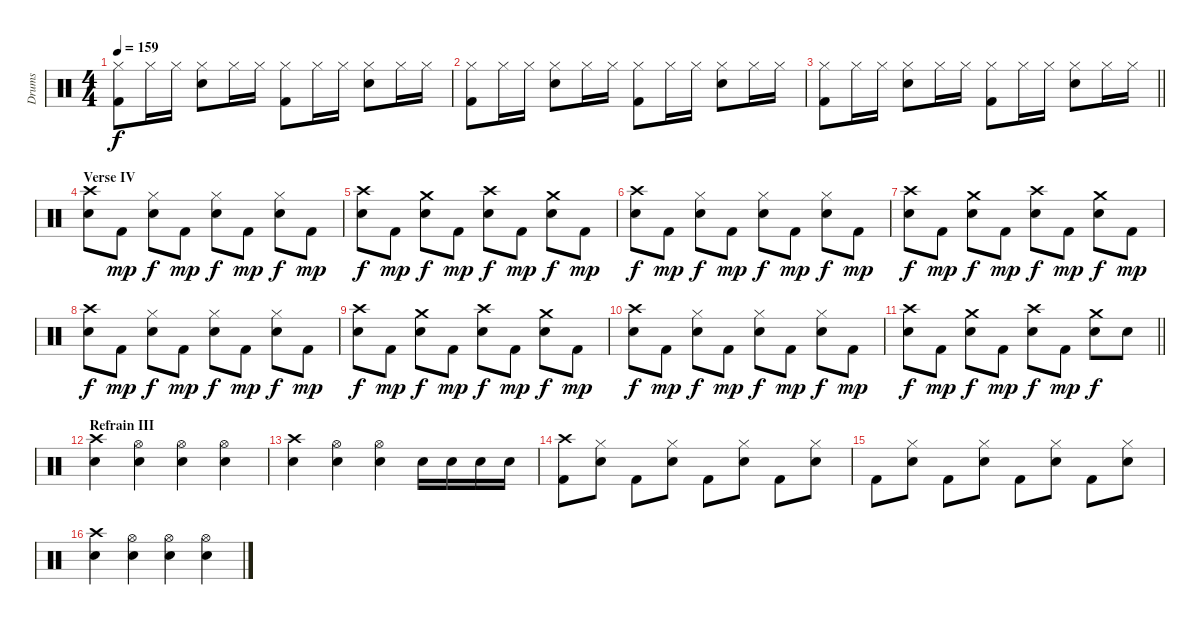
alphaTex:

\track ("Drums" "Drums") {instrument percussion}
\staff {score}
\articulation defaults
\ts (4 4)
\tempo 159
\clef neutral
\ks c
("Hi-Hat (closed)" "Kick (hit) 2").8{dy f} "Hi-Hat (closed)".16 "Hi-Hat (closed)".16 ("Hi-Hat (closed)" "Snare (hit) 2").8 "Hi-Hat (closed)".16 "Hi-Hat (closed)".16 ("Hi-Hat (closed)" "Kick (hit) 2").8 "Hi-Hat (closed)".16 "Hi-Hat (closed)".16 ("Hi-Hat (closed)" "Snare (hit) 2").8 "Hi-Hat (closed)".16 "Hi-Hat (closed)".16 |
("Hi-Hat (closed)" "Kick (hit) 2").8 "Hi-Hat (closed)".16 "Hi-Hat (closed)".16 ("Hi-Hat (closed)" "Snare (hit) 2").8 "Hi-Hat (closed)".16 "Hi-Hat (closed)".16 ("Hi-Hat (closed)" "Kick (hit) 2").8 "Hi-Hat (closed)".16 "Hi-Hat (closed)".16 ("Hi-Hat (closed)" "Snare (hit) 2").8 "Hi-Hat (closed)".16 "Hi-Hat (closed)".16 |
\barLineRight lightlight
("Hi-Hat (closed)" "Kick (hit) 2").8 "Hi-Hat (closed)".16 "Hi-Hat (closed)".16 ("Hi-Hat (closed)" "Snare (hit) 2").8 "Hi-Hat (closed)".16 "Hi-Hat (closed)".16 ("Hi-Hat (closed)" "Kick (hit) 2").8 "Hi-Hat (closed)".16 "Hi-Hat (closed)".16 ("Hi-Hat (closed)" "Snare (hit) 2").8 "Hi-Hat (closed)".16 "Hi-Hat (closed)".16 |
\section ("" "Verse IV")
("Crash high (hit)" "Snare (hit) 2").8 "Kick (hit) 2".8{dy mp} ("Hi-Hat (closed)" "Snare (hit) 2").8{dy f} "Kick (hit) 2".8{dy mp} ("Hi-Hat (closed)" "Snare (hit) 2").8{dy f} "Kick (hit) 2".8{dy mp} ("Hi-Hat (closed)" "Snare (hit) 2").8{dy f} "Kick (hit) 2".8{dy mp} |
("Crash high (hit)" "Snare (hit) 2").8{dy f} "Kick (hit) 2".8{dy mp} ("Crash medium (hit)" "Snare (hit) 2").8{dy f} "Kick (hit) 2".8{dy mp} ("Crash high (hit)" "Snare (hit) 2").8{dy f} "Kick (hit) 2".8{dy mp} ("Crash medium (hit)" "Snare (hit) 2").8{dy f} "Kick (hit) 2".8{dy mp} |
("Crash high (hit)" "Snare (hit) 2").8{dy f} "Kick (hit) 2".8{dy mp} ("Hi-Hat (closed)" "Snare (hit) 2").8{dy f} "Kick (hit) 2".8{dy mp} ("Hi-Hat (closed)" "Snare (hit) 2").8{dy f} "Kick (hit) 2".8{dy mp} ("Hi-Hat (closed)" "Snare (hit) 2").8{dy f} "Kick (hit) 2".8{dy mp} |
("Crash high (hit)" "Snare (hit) 2").8{dy f} "Kick (hit) 2".8{dy mp} ("Crash medium (hit)" "Snare (hit) 2").8{dy f} "Kick (hit) 2".8{dy mp} ("Crash high (hit)" "Snare (hit) 2").8{dy f} "Kick (hit) 2".8{dy mp} ("Crash medium (hit)" "Snare (hit) 2").8{dy f} "Kick (hit) 2".8{dy mp} |
("Crash high (hit)" "Snare (hit) 2").8{dy f} "Kick (hit) 2".8{dy mp} ("Hi-Hat (closed)" "Snare (hit) 2").8{dy f} "Kick (hit) 2".8{dy mp} ("Hi-Hat (closed)" "Snare (hit) 2").8{dy f} "Kick (hit) 2".8{dy mp} ("Hi-Hat (closed)" "Snare (hit) 2").8{dy f} "Kick (hit) 2".8{dy mp} |
("Crash high (hit)" "Snare (hit) 2").8{dy f} "Kick (hit) 2".8{dy mp} ("Crash medium (hit)" "Snare (hit) 2").8{dy f} "Kick (hit) 2".8{dy mp} ("Crash high (hit)" "Snare (hit) 2").8{dy f} "Kick (hit) 2".8{dy mp} ("Crash medium (hit)" "Snare (hit) 2").8{dy f} "Kick (hit) 2".8{dy mp} |
("Crash high (hit)" "Snare (hit) 2").8{dy f} "Kick (hit) 2".8{dy mp} ("Hi-Hat (closed)" "Snare (hit) 2").8{dy f} "Kick (hit) 2".8{dy mp} ("Hi-Hat (closed)" "Snare (hit) 2").8{dy f} "Kick (hit) 2".8{dy mp} ("Hi-Hat (closed)" "Snare (hit) 2").8{dy f} "Kick (hit) 2".8{dy mp} |
\barLineRight lightlight
("Crash high (hit)" "Snare (hit) 2").8{dy f} "Kick (hit) 2".8{dy mp} ("Crash medium (hit)" "Snare (hit) 2").8{dy f} "Kick (hit) 2".8{dy mp} ("Crash high (hit)" "Snare (hit) 2").8{dy f} "Kick (hit) 2".8{dy mp} ("Crash medium (hit)" "Snare (hit) 2").8{dy f} "Snare (hit) 2".8 |
\section ("" "Refrain III")
("Crash high (hit)" "Snare (hit) 2").4 ("Hi-Hat (open)" "Snare (hit) 2").4 ("Hi-Hat (open)" "Snare (hit) 2").4 ("Hi-Hat (open)" "Snare (hit) 2").4 |
("Crash high (hit)" "Snare (hit) 2").4 ("Hi-Hat (open)" "Snare (hit) 2").4 ("Hi-Hat (open)" "Snare (hit) 2").4 "Snare (hit) 2".16 "Snare (hit) 2".16 "Snare (hit) 2".16 "Snare (hit) 2".16 |
("Crash high (hit)" "Kick (hit) 2").8 ("Hi-Hat (closed)" "Snare (hit) 2").8 "Kick (hit) 2".8 ("Hi-Hat (closed)" "Snare (hit) 2").8 "Kick (hit) 2".8 ("Hi-Hat (closed)" "Snare (hit) 2").8 "Kick (hit) 2".8 ("Hi-Hat (closed)" "Snare (hit) 2").8 |
"Kick (hit) 2".8 ("Hi-Hat (closed)" "Snare (hit) 2").8 "Kick (hit) 2".8 ("Hi-Hat (closed)" "Snare (hit) 2").8 "Kick (hit) 2".8 ("Hi-Hat (closed)" "Snare (hit) 2").8 "Kick (hit) 2".8 ("Hi-Hat (closed)" "Snare (hit) 2").8 |
("Crash high (hit)" "Snare (hit) 2").4 ("Hi-Hat (open)" "Snare (hit) 2").4 ("Hi-Hat (open)" "Snare (hit) 2").4 ("Hi-Hat (open)" "Snare (hit) 2").4
